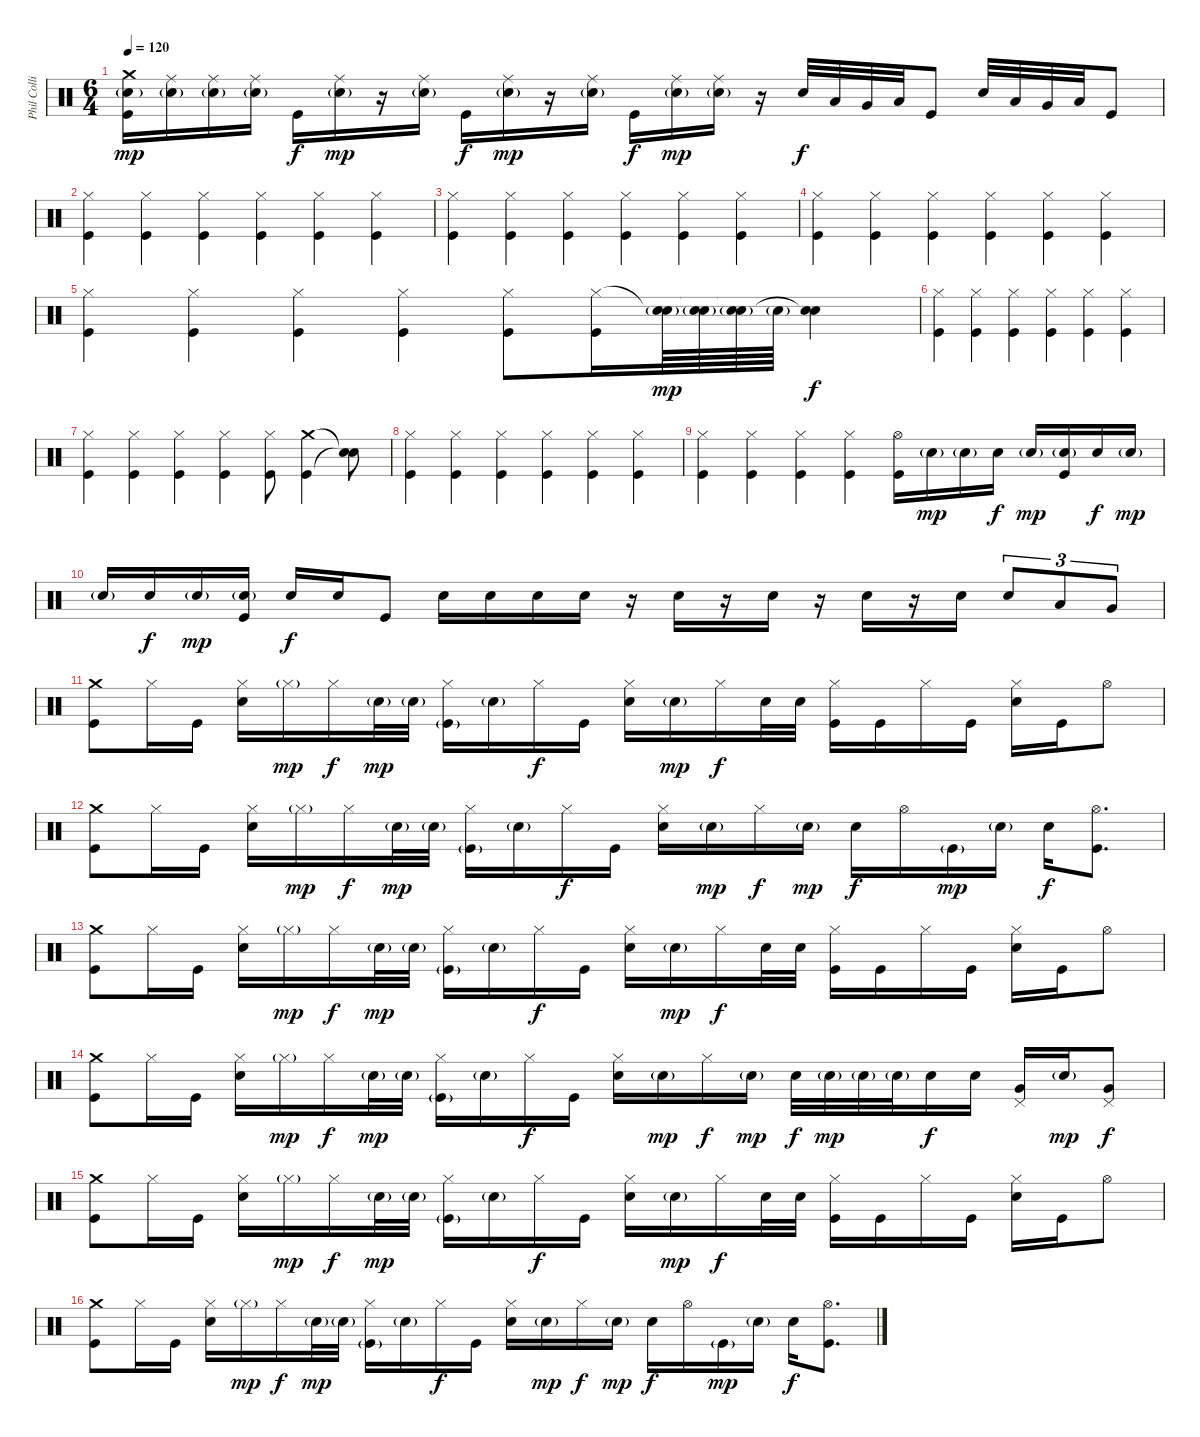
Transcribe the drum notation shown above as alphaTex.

\track ("Phil Collins" "Phil Colli") {instrument percussion}
\staff
\articulation defaults
\ts (6 4)
\tempo 120
\clef neutral
\ks c
("Electric Snare (hit)"{g} "Crash medium (hit)" "Kick (hit)").16{dy mp} ("Electric Snare (hit)"{g} "Ride (middle)").16 ("Electric Snare (hit)"{g} "Ride (middle)").16 ("Electric Snare (hit)"{g} "Ride (middle)").16 "Kick (hit)".16{dy f} ("Electric Snare (hit)"{g} "Ride (middle)").16{dy mp} r.16 ("Electric Snare (hit)"{g} "Ride (middle)").16 "Kick (hit)".16{dy f} ("Electric Snare (hit)"{g} "Ride (middle)").16{dy mp} r.16 ("Electric Snare (hit)"{g} "Ride (middle)").16 "Kick (hit)".16{dy f} ("Electric Snare (hit)"{g} "Ride (middle)").16{dy mp} ("Electric Snare (hit)"{g} "Ride (middle)").16 r.16 "Electric Snare (hit)".32{dy f} "Low Tom (hit)".32 "Very Low Tom (hit)".32 "Low Floor Tom (hit)".32 "Kick (hit)".8 "Electric Snare (hit)".32 "Low Tom (hit)".32 "Very Low Tom (hit)".32 "Low Floor Tom (hit)".32 "Kick (hit)".8 |
("Hi-Hat (closed)" "Kick (hit)").4 ("Hi-Hat (closed)" "Kick (hit)").4 ("Hi-Hat (closed)" "Kick (hit)").4 ("Hi-Hat (closed)" "Kick (hit)").4 ("Hi-Hat (closed)" "Kick (hit)").4 ("Hi-Hat (closed)" "Kick (hit)").4 |
("Hi-Hat (closed)" "Kick (hit)").4 ("Hi-Hat (closed)" "Kick (hit)").4 ("Hi-Hat (closed)" "Kick (hit)").4 ("Hi-Hat (closed)" "Kick (hit)").4 ("Hi-Hat (closed)" "Kick (hit)").4 ("Hi-Hat (closed)" "Kick (hit)").4 |
("Hi-Hat (closed)" "Kick (hit)").4 ("Hi-Hat (closed)" "Kick (hit)").4 ("Hi-Hat (closed)" "Kick (hit)").4 ("Hi-Hat (closed)" "Kick (hit)").4 ("Hi-Hat (closed)" "Kick (hit)").4 ("Hi-Hat (closed)" "Kick (hit)").4 |
("Hi-Hat (closed)" "Kick (hit)").4 ("Hi-Hat (closed)" "Kick (hit)").4 ("Hi-Hat (closed)" "Kick (hit)").4 ("Hi-Hat (closed)" "Kick (hit)").4 ("Hi-Hat (closed)" "Kick (hit)").8 ("Kick (hit)" "Hi-Hat (closed)").16 ("Electric Snare (hit)"{g} "Snare (hit)"{t}).64{dy mp} ("Electric Snare (hit)"{g} "Snare (hit)"{t}).64 ("Electric Snare (hit)"{g} "Snare (hit)"{t}).64 "Electric Snare (hit)"{g}.64 ("Electric Snare (hit)" "Snare (hit)"{t}).4{dy f} |
("Hi-Hat (closed)" "Kick (hit)").4 ("Hi-Hat (closed)" "Kick (hit)").4 ("Hi-Hat (closed)" "Kick (hit)").4 ("Hi-Hat (closed)" "Kick (hit)").4 ("Hi-Hat (closed)" "Kick (hit)").4 ("Hi-Hat (closed)" "Kick (hit)").4 |
("Hi-Hat (closed)" "Kick (hit)").4 ("Hi-Hat (closed)" "Kick (hit)").4 ("Hi-Hat (closed)" "Kick (hit)").4 ("Hi-Hat (closed)" "Kick (hit)").4 ("Hi-Hat (closed)" "Kick (hit)").8 ("Kick (hit)" "Crash medium (hit)").4 ("Snare (hit)"{t} "Snare (hit)"{t}).8 |
("Hi-Hat (closed)" "Kick (hit)").4 ("Hi-Hat (closed)" "Kick (hit)").4 ("Hi-Hat (closed)" "Kick (hit)").4 ("Hi-Hat (closed)" "Kick (hit)").4 ("Hi-Hat (closed)" "Kick (hit)").4 ("Hi-Hat (closed)" "Kick (hit)").4 |
("Hi-Hat (closed)" "Kick (hit)").4 ("Hi-Hat (closed)" "Kick (hit)").4 ("Hi-Hat (closed)" "Kick (hit)").4 ("Hi-Hat (closed)" "Kick (hit)").4 ("Hi-Hat (open)" "Kick (hit)").16 "Electric Snare (hit)"{g}.16{dy mp} "Electric Snare (hit)"{g}.16 "Electric Snare (hit)".16{dy f} "Electric Snare (hit)"{g}.16{dy mp} ("Electric Snare (hit)"{g} "Kick (hit)").16 "Electric Snare (hit)".16{dy f} "Electric Snare (hit)"{g}.16{dy mp} |
"Electric Snare (hit)"{g}.16 "Electric Snare (hit)".16{dy f} "Electric Snare (hit)"{g}.16{dy mp} ("Electric Snare (hit)"{g} "Kick (hit)").16 "Electric Snare (hit)".16{dy f} "Electric Snare (hit)".16 "Kick (hit)".8 "Electric Snare (hit)".16 "Electric Snare (hit)".16 "Electric Snare (hit)".16 "Electric Snare (hit)".16 r.16 "Electric Snare (hit)".16 r.16 "Electric Snare (hit)".16 r.16 "Electric Snare (hit)".16 r.16 "Electric Snare (hit)".16 "Electric Snare (hit)".8{tu (3 2)} "Low Tom (hit)".8{tu (3 2)} "Very Low Tom (hit)".8{tu (3 2)} |
("Crash medium (hit)" "Kick (hit)").8 "Hi-Hat (closed)".16 "Kick (hit)".16 ("Hi-Hat (closed)" "Electric Snare (hit)").16 "Hi-Hat (closed)"{g}.16{dy mp} "Hi-Hat (closed)".16{dy f} "Electric Snare (hit)"{g}.32{dy mp} "Electric Snare (hit)"{g}.32 ("Hi-Hat (closed)" "Kick (hit)"{g}).16 "Electric Snare (hit)"{g}.16 "Hi-Hat (closed)".16{dy f} "Kick (hit)".16 ("Hi-Hat (closed)" "Electric Snare (hit)").16 "Electric Snare (hit)"{g}.16{dy mp} "Hi-Hat (closed)".16{dy f} "Electric Snare (hit)".32 "Electric Snare (hit)".32 ("Hi-Hat (closed)" "Kick (hit)").16 "Kick (hit)".16 "Hi-Hat (closed)".16 "Kick (hit)".16 ("Hi-Hat (closed)" "Electric Snare (hit)").16 "Kick (hit)".16 "Hi-Hat (open)".8 |
("Crash medium (hit)" "Kick (hit)").8 "Hi-Hat (closed)".16 "Kick (hit)".16 ("Hi-Hat (closed)" "Electric Snare (hit)").16 "Hi-Hat (closed)"{g}.16{dy mp} "Hi-Hat (closed)".16{dy f} "Electric Snare (hit)"{g}.32{dy mp} "Electric Snare (hit)"{g}.32 ("Hi-Hat (closed)" "Kick (hit)"{g}).16 "Electric Snare (hit)"{g}.16 "Hi-Hat (closed)".16{dy f} "Kick (hit)".16 ("Hi-Hat (closed)" "Electric Snare (hit)").16 "Electric Snare (hit)"{g}.16{dy mp} "Hi-Hat (closed)".16{dy f} "Electric Snare (hit)"{g}.16{dy mp} "Electric Snare (hit)".16{dy f} "Hi-Hat (open)".16 "Kick (hit)"{g}.16{dy mp} "Electric Snare (hit)"{g}.16 "Electric Snare (hit)".16{dy f} ("Hi-Hat (open)" "Kick (hit)").8{d} |
("Crash medium (hit)" "Kick (hit)").8 "Hi-Hat (closed)".16 "Kick (hit)".16 ("Hi-Hat (closed)" "Electric Snare (hit)").16 "Hi-Hat (closed)"{g}.16{dy mp} "Hi-Hat (closed)".16{dy f} "Electric Snare (hit)"{g}.32{dy mp} "Electric Snare (hit)"{g}.32 ("Hi-Hat (closed)" "Kick (hit)"{g}).16 "Electric Snare (hit)"{g}.16 "Hi-Hat (closed)".16{dy f} "Kick (hit)".16 ("Hi-Hat (closed)" "Electric Snare (hit)").16 "Electric Snare (hit)"{g}.16{dy mp} "Hi-Hat (closed)".16{dy f} "Electric Snare (hit)".32 "Electric Snare (hit)".32 ("Hi-Hat (closed)" "Kick (hit)").16 "Kick (hit)".16 "Hi-Hat (closed)".16 "Kick (hit)".16 ("Hi-Hat (closed)" "Electric Snare (hit)").16 "Kick (hit)".16 "Hi-Hat (open)".8 |
("Crash medium (hit)" "Kick (hit)").8 "Hi-Hat (closed)".16 "Kick (hit)".16 ("Hi-Hat (closed)" "Electric Snare (hit)").16 "Hi-Hat (closed)"{g}.16{dy mp} "Hi-Hat (closed)".16{dy f} "Electric Snare (hit)"{g}.32{dy mp} "Electric Snare (hit)"{g}.32 ("Hi-Hat (closed)" "Kick (hit)"{g}).16 "Electric Snare (hit)"{g}.16 "Hi-Hat (closed)".16{dy f} "Kick (hit)".16 ("Hi-Hat (closed)" "Electric Snare (hit)").16 "Electric Snare (hit)"{g}.16{dy mp} "Hi-Hat (closed)".16{dy f} "Electric Snare (hit)"{g}.16{dy mp} "Electric Snare (hit)".32{dy f} "Electric Snare (hit)"{g}.32{dy mp} "Electric Snare (hit)"{g}.32 "Electric Snare (hit)"{g}.32 "Electric Snare (hit)".16{dy f} "Electric Snare (hit)".16 ("Pedal Hi-Hat (hit)" "Very Low Tom (hit)").16 "Electric Snare (hit)"{g}.16{dy mp} ("Pedal Hi-Hat (hit)" "Very Low Tom (hit)").8{dy f} |
("Crash medium (hit)" "Kick (hit)").8 "Hi-Hat (closed)".16 "Kick (hit)".16 ("Hi-Hat (closed)" "Electric Snare (hit)").16 "Hi-Hat (closed)"{g}.16{dy mp} "Hi-Hat (closed)".16{dy f} "Electric Snare (hit)"{g}.32{dy mp} "Electric Snare (hit)"{g}.32 ("Hi-Hat (closed)" "Kick (hit)"{g}).16 "Electric Snare (hit)"{g}.16 "Hi-Hat (closed)".16{dy f} "Kick (hit)".16 ("Hi-Hat (closed)" "Electric Snare (hit)").16 "Electric Snare (hit)"{g}.16{dy mp} "Hi-Hat (closed)".16{dy f} "Electric Snare (hit)".32 "Electric Snare (hit)".32 ("Hi-Hat (closed)" "Kick (hit)").16 "Kick (hit)".16 "Hi-Hat (closed)".16 "Kick (hit)".16 ("Hi-Hat (closed)" "Electric Snare (hit)").16 "Kick (hit)".16 "Hi-Hat (open)".8 |
("Crash medium (hit)" "Kick (hit)").8 "Hi-Hat (closed)".16 "Kick (hit)".16 ("Hi-Hat (closed)" "Electric Snare (hit)").16 "Hi-Hat (closed)"{g}.16{dy mp} "Hi-Hat (closed)".16{dy f} "Electric Snare (hit)"{g}.32{dy mp} "Electric Snare (hit)"{g}.32 ("Hi-Hat (closed)" "Kick (hit)"{g}).16 "Electric Snare (hit)"{g}.16 "Hi-Hat (closed)".16{dy f} "Kick (hit)".16 ("Hi-Hat (closed)" "Electric Snare (hit)").16 "Electric Snare (hit)"{g}.16{dy mp} "Hi-Hat (closed)".16{dy f} "Electric Snare (hit)"{g}.16{dy mp} "Electric Snare (hit)".16{dy f} "Hi-Hat (open)".16 "Kick (hit)"{g}.16{dy mp} "Electric Snare (hit)"{g}.16 "Electric Snare (hit)".16{dy f} ("Hi-Hat (open)" "Kick (hit)").8{d}
